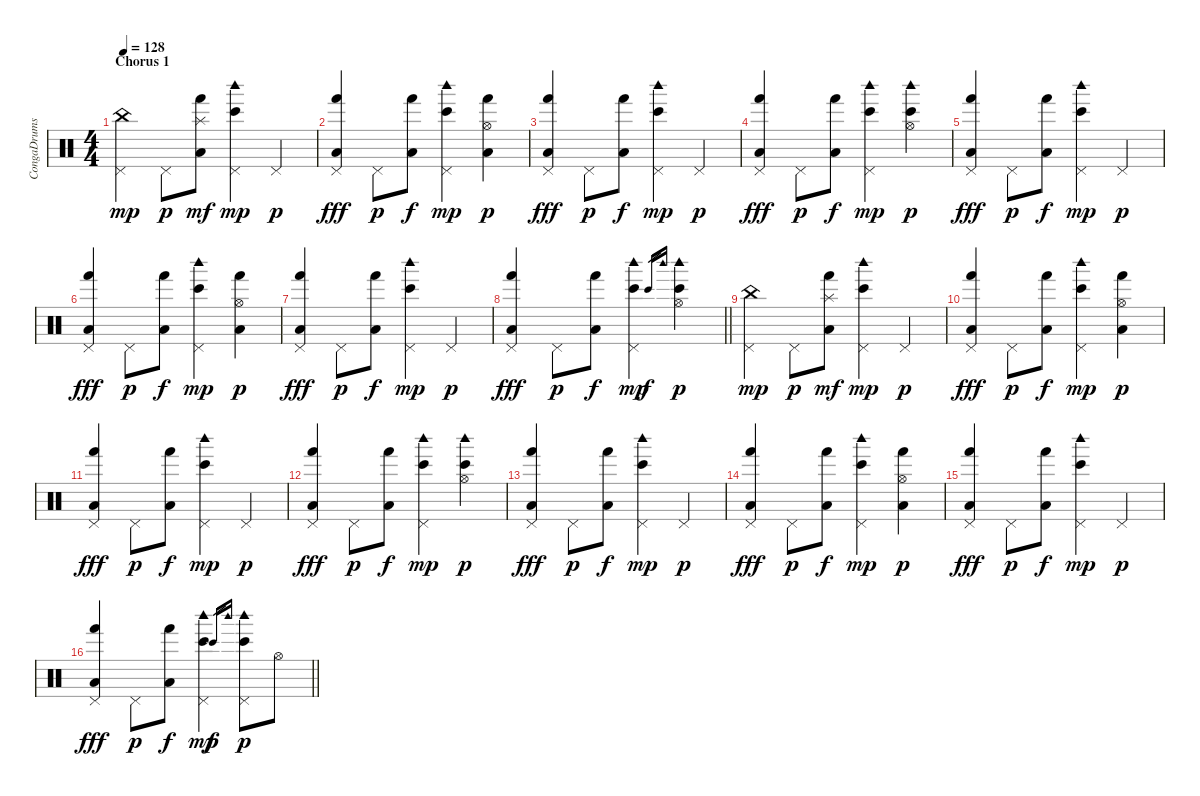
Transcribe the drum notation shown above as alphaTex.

\track ("CongaDrums" "CongaDrums") {instrument percussion}
\staff {score}
\articulation defaults
\ts (4 4)
\section ("" "Chorus 1")
\tempo 128
\clef neutral
\ks c
("China (hit)" "Pedal Hi-Hat (hit)").4{dy mp} "Pedal Hi-Hat (hit)".8{dy p} ("Splash (hit)" "Hand (hit)" "Low Floor Tom (hit)").8{dy mf} ("Bongo High (hit)" "Woodblock high (hit)" "Pedal Hi-Hat (hit)").4{dy mp} "Pedal Hi-Hat (hit)".4{dy p} |
("Pedal Hi-Hat (hit)" "Hand (hit)" "Low Floor Tom (hit)").4{dy fff} "Pedal Hi-Hat (hit)".8{dy p} ("Hand (hit)" "Low Floor Tom (hit)").8{dy f} ("Bongo High (hit)" "Woodblock high (hit)" "Pedal Hi-Hat (hit)").4{dy mp} ("Hi-Hat (open)" "Hand (hit)" "Low Floor Tom (hit)").4{dy p} |
("Pedal Hi-Hat (hit)" "Hand (hit)" "Low Floor Tom (hit)").4{dy fff} "Pedal Hi-Hat (hit)".8{dy p} ("Hand (hit)" "Low Floor Tom (hit)").8{dy f} ("Bongo High (hit)" "Woodblock high (hit)" "Pedal Hi-Hat (hit)").4{dy mp} "Pedal Hi-Hat (hit)".4{dy p} |
("Pedal Hi-Hat (hit)" "Hand (hit)" "Low Floor Tom (hit)").4{dy fff} "Pedal Hi-Hat (hit)".8{dy p} ("Hand (hit)" "Low Floor Tom (hit)").8{dy f} ("Bongo High (hit)" "Woodblock high (hit)" "Pedal Hi-Hat (hit)").4{dy mp} ("Bongo High (hit)" "Woodblock high (hit)" "Hi-Hat (open)").4{dy p} |
("Pedal Hi-Hat (hit)" "Hand (hit)" "Low Floor Tom (hit)").4{dy fff} "Pedal Hi-Hat (hit)".8{dy p} ("Hand (hit)" "Low Floor Tom (hit)").8{dy f} ("Bongo High (hit)" "Woodblock high (hit)" "Pedal Hi-Hat (hit)").4{dy mp} "Pedal Hi-Hat (hit)".4{dy p} |
("Pedal Hi-Hat (hit)" "Hand (hit)" "Low Floor Tom (hit)").4{dy fff} "Pedal Hi-Hat (hit)".8{dy p} ("Hand (hit)" "Low Floor Tom (hit)").8{dy f} ("Bongo High (hit)" "Woodblock high (hit)" "Pedal Hi-Hat (hit)").4{dy mp} ("Hi-Hat (open)" "Hand (hit)" "Low Floor Tom (hit)").4{dy p} |
("Pedal Hi-Hat (hit)" "Hand (hit)" "Low Floor Tom (hit)").4{dy fff} "Pedal Hi-Hat (hit)".8{dy p} ("Hand (hit)" "Low Floor Tom (hit)").8{dy f} ("Bongo High (hit)" "Woodblock high (hit)" "Pedal Hi-Hat (hit)").4{dy mp} "Pedal Hi-Hat (hit)".4{dy p} |
\barLineRight lightlight
("Pedal Hi-Hat (hit)" "Hand (hit)" "Low Floor Tom (hit)").4{dy fff} "Pedal Hi-Hat (hit)".8{dy p} ("Hand (hit)" "Low Floor Tom (hit)").8{dy f} ("Bongo High (hit)" "Woodblock high (hit)" "Pedal Hi-Hat (hit)").4{dy mp} "Bongo High (hit)".16{gr dy f} "Woodblock high (hit)".16{gr} ("Bongo High (hit)" "Woodblock high (hit)" "Hi-Hat (open)").4{dy p} |
("China (hit)" "Pedal Hi-Hat (hit)").4{dy mp} "Pedal Hi-Hat (hit)".8{dy p} ("Splash (hit)" "Hand (hit)" "Low Floor Tom (hit)").8{dy mf} ("Bongo High (hit)" "Woodblock high (hit)" "Pedal Hi-Hat (hit)").4{dy mp} "Pedal Hi-Hat (hit)".4{dy p} |
("Pedal Hi-Hat (hit)" "Hand (hit)" "Low Floor Tom (hit)").4{dy fff} "Pedal Hi-Hat (hit)".8{dy p} ("Hand (hit)" "Low Floor Tom (hit)").8{dy f} ("Bongo High (hit)" "Woodblock high (hit)" "Pedal Hi-Hat (hit)").4{dy mp} ("Hi-Hat (open)" "Hand (hit)" "Low Floor Tom (hit)").4{dy p} |
("Pedal Hi-Hat (hit)" "Hand (hit)" "Low Floor Tom (hit)").4{dy fff} "Pedal Hi-Hat (hit)".8{dy p} ("Hand (hit)" "Low Floor Tom (hit)").8{dy f} ("Bongo High (hit)" "Woodblock high (hit)" "Pedal Hi-Hat (hit)").4{dy mp} "Pedal Hi-Hat (hit)".4{dy p} |
("Pedal Hi-Hat (hit)" "Hand (hit)" "Low Floor Tom (hit)").4{dy fff} "Pedal Hi-Hat (hit)".8{dy p} ("Hand (hit)" "Low Floor Tom (hit)").8{dy f} ("Bongo High (hit)" "Woodblock high (hit)" "Pedal Hi-Hat (hit)").4{dy mp} ("Bongo High (hit)" "Woodblock high (hit)" "Hi-Hat (open)").4{dy p} |
("Pedal Hi-Hat (hit)" "Hand (hit)" "Low Floor Tom (hit)").4{dy fff} "Pedal Hi-Hat (hit)".8{dy p} ("Hand (hit)" "Low Floor Tom (hit)").8{dy f} ("Bongo High (hit)" "Woodblock high (hit)" "Pedal Hi-Hat (hit)").4{dy mp} "Pedal Hi-Hat (hit)".4{dy p} |
("Pedal Hi-Hat (hit)" "Hand (hit)" "Low Floor Tom (hit)").4{dy fff} "Pedal Hi-Hat (hit)".8{dy p} ("Hand (hit)" "Low Floor Tom (hit)").8{dy f} ("Bongo High (hit)" "Woodblock high (hit)" "Pedal Hi-Hat (hit)").4{dy mp} ("Hi-Hat (open)" "Hand (hit)" "Low Floor Tom (hit)").4{dy p} |
("Pedal Hi-Hat (hit)" "Hand (hit)" "Low Floor Tom (hit)").4{dy fff} "Pedal Hi-Hat (hit)".8{dy p} ("Hand (hit)" "Low Floor Tom (hit)").8{dy f} ("Bongo High (hit)" "Woodblock high (hit)" "Pedal Hi-Hat (hit)").4{dy mp} "Pedal Hi-Hat (hit)".4{dy p} |
\barLineRight lightlight
("Pedal Hi-Hat (hit)" "Hand (hit)" "Low Floor Tom (hit)").4{dy fff} "Pedal Hi-Hat (hit)".8{dy p} ("Hand (hit)" "Low Floor Tom (hit)").8{dy f} ("Bongo High (hit)" "Woodblock high (hit)" "Pedal Hi-Hat (hit)").4{dy mp} "Bongo High (hit)".16{gr dy f} "Woodblock high (hit)".16{gr} ("Bongo High (hit)" "Woodblock high (hit)" "Pedal Hi-Hat (hit)").8{dy p} "Hi-Hat (open)".8
